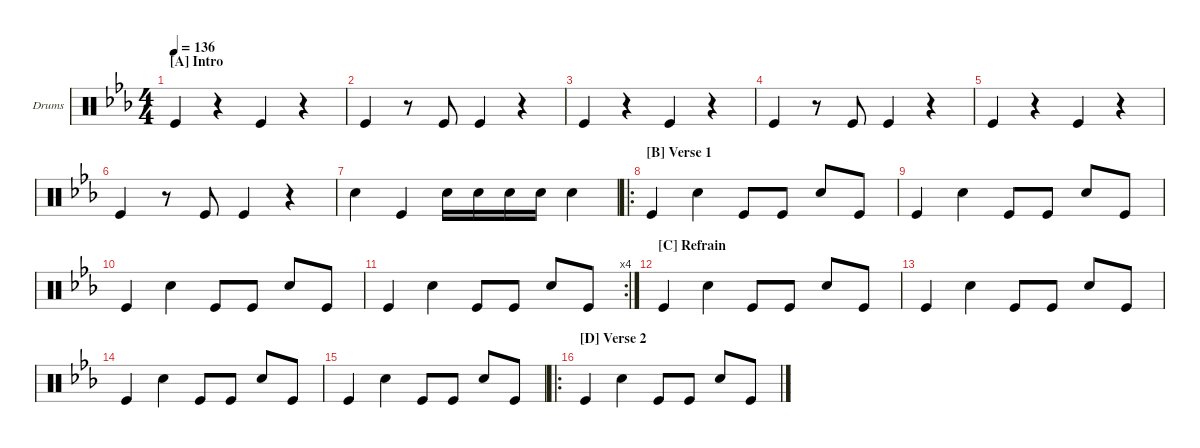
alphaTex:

\defaultSystemsLayout 4
\hideDynamics
\bracketExtendMode groupsimilarinstruments
\firstSystemTrackNameOrientation horizontal
\otherSystemsTrackNameOrientation horizontal
\track ("Drumkit" "Drums") {multiBarRest instrument percussion}
\staff {score}
\articulation defaults
\ts (4 4)
\section ("A" "Intro")
\tempo 136
\clef neutral
\ks eb "Kick (hit)".4{dy mf}
r.4 "Kick (hit)".4 r.4 |
"Kick (hit)".4 r.8 "Kick (hit)".8 "Kick (hit)".4 r.4 |
"Kick (hit)".4 r.4 "Kick (hit)".4 r.4 |
"Kick (hit)".4 r.8 "Kick (hit)".8 "Kick (hit)".4 r.4 |
"Kick (hit)".4 r.4 "Kick (hit)".4 r.4 |
"Kick (hit)".4 r.8 "Kick (hit)".8 "Kick (hit)".4 r.4 |
"Snare (hit) 2".4 "Kick (hit)".4 "Snare (hit) 2".16 "Snare (hit) 2".16 "Snare (hit) 2".16 "Snare (hit) 2".16 "Snare (hit) 2".4 |
\ro
\section ("B" "Verse 1")
"Kick (hit)".4 "Snare (hit) 2".4 "Kick (hit)".8 "Kick (hit)".8 "Snare (hit) 2".8 "Kick (hit)".8 |
"Kick (hit)".4 "Snare (hit) 2".4 "Kick (hit)".8 "Kick (hit)".8 "Snare (hit) 2".8 "Kick (hit)".8 |
"Kick (hit)".4 "Snare (hit) 2".4 "Kick (hit)".8 "Kick (hit)".8 "Snare (hit) 2".8 "Kick (hit)".8 |
\rc 4 "Kick (hit)".4 "Snare (hit) 2".4 "Kick (hit)".8 "Kick (hit)".8 "Snare (hit) 2".8 "Kick (hit)".8
|
\section ("C" "Refrain")
"Kick (hit)".4 "Snare (hit) 2".4 "Kick (hit)".8 "Kick (hit)".8 "Snare (hit) 2".8 "Kick (hit)".8 |
"Kick (hit)".4 "Snare (hit) 2".4 "Kick (hit)".8 "Kick (hit)".8 "Snare (hit) 2".8 "Kick (hit)".8 |
"Kick (hit)".4 "Snare (hit) 2".4 "Kick (hit)".8 "Kick (hit)".8 "Snare (hit) 2".8 "Kick (hit)".8 |
"Kick (hit)".4 "Snare (hit) 2".4 "Kick (hit)".8 "Kick (hit)".8 "Snare (hit) 2".8 "Kick (hit)".8 |
\ro
\section ("D" "Verse 2")
"Kick (hit)".4 "Snare (hit) 2".4 "Kick (hit)".8 "Kick (hit)".8 "Snare (hit) 2".8 "Kick (hit)".8
